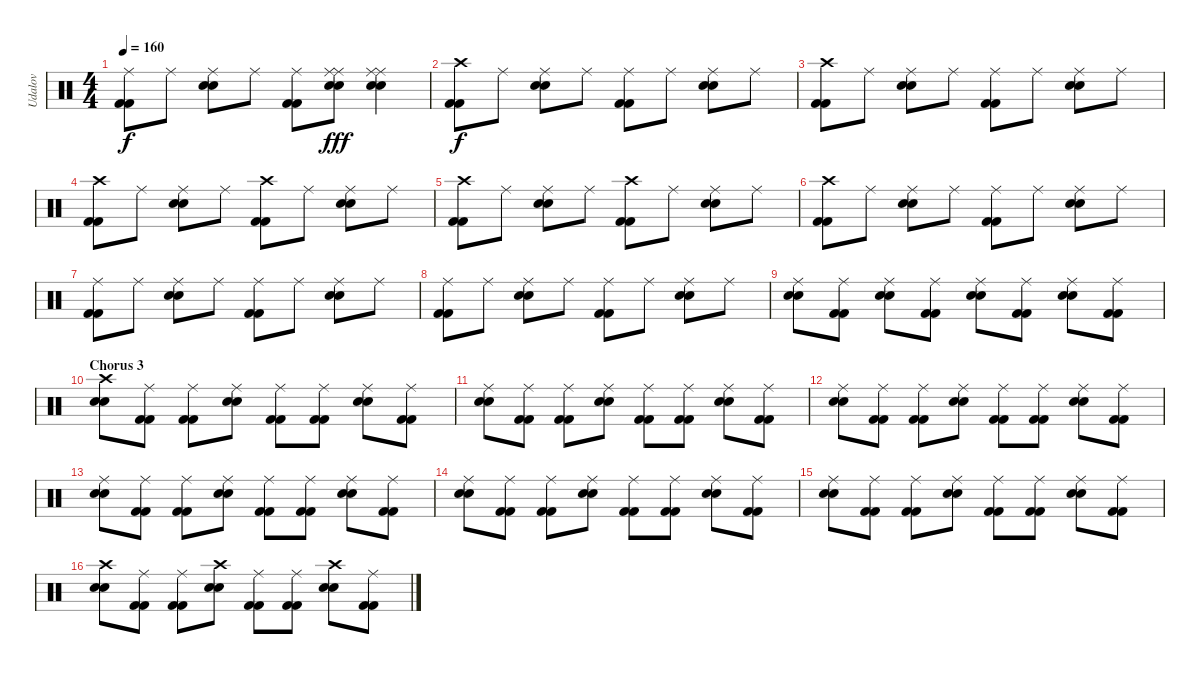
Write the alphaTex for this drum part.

\track ("Udalov" "Udalov") {instrument percussion}
\staff {score}
\articulation defaults
\ts (4 4)
\tempo 160
\clef neutral
\ks c
("Ride (middle)" "Kick (hit) 2" "Kick (hit) 2").8{dy f} "Ride (middle)".8 ("Ride (middle)" "Electric Snare (hit)" "Electric Snare (hit)").8 "Ride (middle)".8 ("Ride (middle)" "Kick (hit) 2" "Kick (hit) 2").8 ("Ride (middle)" "Ride (middle)" "Electric Snare (hit)" "Electric Snare (hit)").8{dy fff} ("Ride (middle)" "Ride (middle)" "Electric Snare (hit)" "Electric Snare (hit)").4 |
("Crash high (hit)" "Kick (hit) 2" "Kick (hit) 2").8{dy f} "Ride (middle)".8 ("Ride (middle)" "Electric Snare (hit)" "Electric Snare (hit)").8 "Ride (middle)".8 ("Ride (middle)" "Kick (hit) 2" "Kick (hit) 2").8 "Ride (middle)".8 ("Ride (middle)" "Electric Snare (hit)" "Electric Snare (hit)").8 "Ride (middle)".8 |
("Crash high (hit)" "Kick (hit) 2" "Kick (hit) 2").8 "Ride (middle)".8 ("Ride (middle)" "Electric Snare (hit)" "Electric Snare (hit)").8 "Ride (middle)".8 ("Ride (middle)" "Kick (hit) 2" "Kick (hit) 2").8 "Ride (middle)".8 ("Ride (middle)" "Electric Snare (hit)" "Electric Snare (hit)").8 "Ride (middle)".8 |
("Crash high (hit)" "Kick (hit) 2" "Kick (hit) 2").8 "Ride (middle)".8 ("Ride (middle)" "Electric Snare (hit)" "Electric Snare (hit)").8 "Ride (middle)".8 ("Crash high (hit)" "Kick (hit) 2" "Kick (hit) 2").8 "Ride (middle)".8 ("Ride (middle)" "Electric Snare (hit)" "Electric Snare (hit)").8 "Ride (middle)".8 |
("Crash high (hit)" "Kick (hit) 2" "Kick (hit) 2").8 "Ride (middle)".8 ("Ride (middle)" "Electric Snare (hit)" "Electric Snare (hit)").8 "Ride (middle)".8 ("Crash high (hit)" "Kick (hit) 2" "Kick (hit) 2").8 "Ride (middle)".8 ("Ride (middle)" "Electric Snare (hit)" "Electric Snare (hit)").8 "Ride (middle)".8 |
("Crash high (hit)" "Kick (hit) 2" "Kick (hit) 2").8 "Ride (middle)".8 ("Ride (middle)" "Electric Snare (hit)" "Electric Snare (hit)").8 "Ride (middle)".8 ("Ride (middle)" "Kick (hit) 2" "Kick (hit) 2").8 "Ride (middle)".8 ("Ride (middle)" "Electric Snare (hit)" "Electric Snare (hit)").8 "Ride (middle)".8 |
("Ride (middle)" "Kick (hit) 2" "Kick (hit) 2").8 "Ride (middle)".8 ("Ride (middle)" "Electric Snare (hit)" "Electric Snare (hit)").8 "Ride (middle)".8 ("Ride (middle)" "Kick (hit) 2" "Kick (hit) 2").8 "Ride (middle)".8 ("Ride (middle)" "Electric Snare (hit)" "Electric Snare (hit)").8 "Ride (middle)".8 |
("Ride (middle)" "Kick (hit) 2" "Kick (hit) 2").8 "Ride (middle)".8 ("Ride (middle)" "Electric Snare (hit)" "Electric Snare (hit)").8 "Ride (middle)".8 ("Ride (middle)" "Kick (hit) 2" "Kick (hit) 2").8 "Ride (middle)".8 ("Ride (middle)" "Electric Snare (hit)" "Electric Snare (hit)").8 "Ride (middle)".8 |
("Ride (middle)" "Electric Snare (hit)" "Electric Snare (hit)").8 ("Ride (middle)" "Kick (hit) 2" "Kick (hit) 2").8 ("Ride (middle)" "Electric Snare (hit)" "Electric Snare (hit)").8 ("Ride (middle)" "Kick (hit) 2" "Kick (hit) 2").8 ("Ride (middle)" "Electric Snare (hit)" "Electric Snare (hit)").8 ("Ride (middle)" "Kick (hit) 2" "Kick (hit) 2").8 ("Ride (middle)" "Electric Snare (hit)" "Electric Snare (hit)").8 ("Ride (middle)" "Kick (hit) 2" "Kick (hit) 2").8 |
\section ("" "Chorus 3")
("Crash high (hit)" "Electric Snare (hit)" "Electric Snare (hit)").8 ("Ride (middle)" "Kick (hit) 2" "Kick (hit) 2").8 ("Ride (middle)" "Kick (hit) 2" "Kick (hit) 2").8 ("Ride (middle)" "Electric Snare (hit)" "Electric Snare (hit)").8 ("Ride (middle)" "Kick (hit) 2" "Kick (hit) 2").8 ("Ride (middle)" "Kick (hit) 2" "Kick (hit) 2").8 ("Ride (middle)" "Electric Snare (hit)" "Electric Snare (hit)").8 ("Ride (middle)" "Kick (hit) 2" "Kick (hit) 2").8 |
("Ride (middle)" "Electric Snare (hit)" "Electric Snare (hit)").8 ("Ride (middle)" "Kick (hit) 2" "Kick (hit) 2").8 ("Ride (middle)" "Kick (hit) 2" "Kick (hit) 2").8 ("Ride (middle)" "Electric Snare (hit)" "Electric Snare (hit)").8 ("Ride (middle)" "Kick (hit) 2" "Kick (hit) 2").8 ("Ride (middle)" "Kick (hit) 2" "Kick (hit) 2").8 ("Ride (middle)" "Electric Snare (hit)" "Electric Snare (hit)").8 ("Ride (middle)" "Kick (hit) 2" "Kick (hit) 2").8 |
("Ride (middle)" "Electric Snare (hit)" "Electric Snare (hit)").8 ("Ride (middle)" "Kick (hit) 2" "Kick (hit) 2").8 ("Ride (middle)" "Kick (hit) 2" "Kick (hit) 2").8 ("Ride (middle)" "Electric Snare (hit)" "Electric Snare (hit)").8 ("Ride (middle)" "Kick (hit) 2" "Kick (hit) 2").8 ("Ride (middle)" "Kick (hit) 2" "Kick (hit) 2").8 ("Ride (middle)" "Electric Snare (hit)" "Electric Snare (hit)").8 ("Ride (middle)" "Kick (hit) 2" "Kick (hit) 2").8 |
("Ride (middle)" "Electric Snare (hit)" "Electric Snare (hit)").8 ("Ride (middle)" "Kick (hit) 2" "Kick (hit) 2").8 ("Ride (middle)" "Kick (hit) 2" "Kick (hit) 2").8 ("Ride (middle)" "Electric Snare (hit)" "Electric Snare (hit)").8 ("Ride (middle)" "Kick (hit) 2" "Kick (hit) 2").8 ("Ride (middle)" "Kick (hit) 2" "Kick (hit) 2").8 ("Ride (middle)" "Electric Snare (hit)" "Electric Snare (hit)").8 ("Ride (middle)" "Kick (hit) 2" "Kick (hit) 2").8 |
("Ride (middle)" "Electric Snare (hit)" "Electric Snare (hit)").8 ("Ride (middle)" "Kick (hit) 2" "Kick (hit) 2").8 ("Ride (middle)" "Kick (hit) 2" "Kick (hit) 2").8 ("Ride (middle)" "Electric Snare (hit)" "Electric Snare (hit)").8 ("Ride (middle)" "Kick (hit) 2" "Kick (hit) 2").8 ("Ride (middle)" "Kick (hit) 2" "Kick (hit) 2").8 ("Ride (middle)" "Electric Snare (hit)" "Electric Snare (hit)").8 ("Ride (middle)" "Kick (hit) 2" "Kick (hit) 2").8 |
("Ride (middle)" "Electric Snare (hit)" "Electric Snare (hit)").8 ("Ride (middle)" "Kick (hit) 2" "Kick (hit) 2").8 ("Ride (middle)" "Kick (hit) 2" "Kick (hit) 2").8 ("Ride (middle)" "Electric Snare (hit)" "Electric Snare (hit)").8 ("Ride (middle)" "Kick (hit) 2" "Kick (hit) 2").8 ("Ride (middle)" "Kick (hit) 2" "Kick (hit) 2").8 ("Ride (middle)" "Electric Snare (hit)" "Electric Snare (hit)").8 ("Ride (middle)" "Kick (hit) 2" "Kick (hit) 2").8 |
("Crash high (hit)" "Electric Snare (hit)" "Electric Snare (hit)").8 ("Ride (middle)" "Kick (hit) 2" "Kick (hit) 2").8 ("Ride (middle)" "Kick (hit) 2" "Kick (hit) 2").8 ("Crash high (hit)" "Electric Snare (hit)" "Electric Snare (hit)").8 ("Ride (middle)" "Kick (hit) 2" "Kick (hit) 2").8 ("Ride (middle)" "Kick (hit) 2" "Kick (hit) 2").8 ("Crash high (hit)" "Electric Snare (hit)" "Electric Snare (hit)").8 ("Ride (middle)" "Kick (hit) 2" "Kick (hit) 2").8
